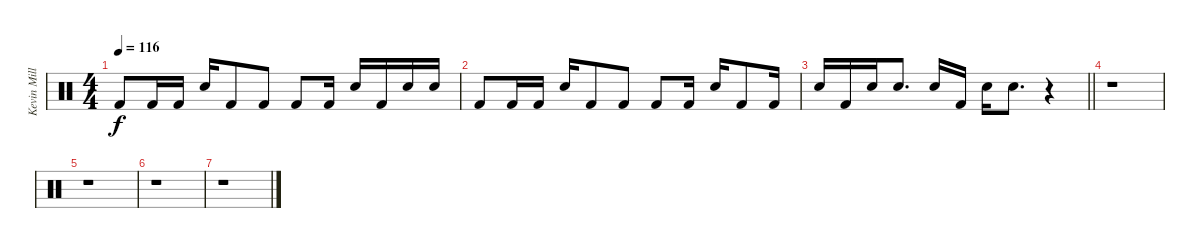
\track ("Kevin Miller (Drums)" "Kevin Mill") {instrument percussion}
\staff {score}
\articulation defaults
\ts (4 4)
\tempo 116
\clef neutral
\ks c "Kick (hit) 2".8{dy f} "Kick (hit) 2".16 "Kick (hit) 2".16 "Electric Snare (hit)".16 "Kick (hit) 2".8 "Kick (hit) 2".8 "Kick (hit) 2".8 "Kick (hit) 2".16 "Electric Snare (hit)".16 "Kick (hit) 2".16 "Electric Snare (hit)".16 "Electric Snare (hit)".16
|
"Kick (hit) 2".8 "Kick (hit) 2".16 "Kick (hit) 2".16 "Electric Snare (hit)".16 "Kick (hit) 2".8 "Kick (hit) 2".8 "Kick (hit) 2".8 "Kick (hit) 2".16 "Electric Snare (hit)".16 "Kick (hit) 2".8 "Kick (hit) 2".16 |
\barLineRight lightlight "Electric Snare (hit)".16 "Kick (hit) 2".16 "Electric Snare (hit)".16 "Electric Snare (hit)".8{d} "Electric Snare (hit)".16 "Kick (hit) 2".16 "Electric Snare (hit)".16 "Electric Snare (hit)".8{d}
r.4 |
r.1 |
r.1 |
r.1 |
r.1
